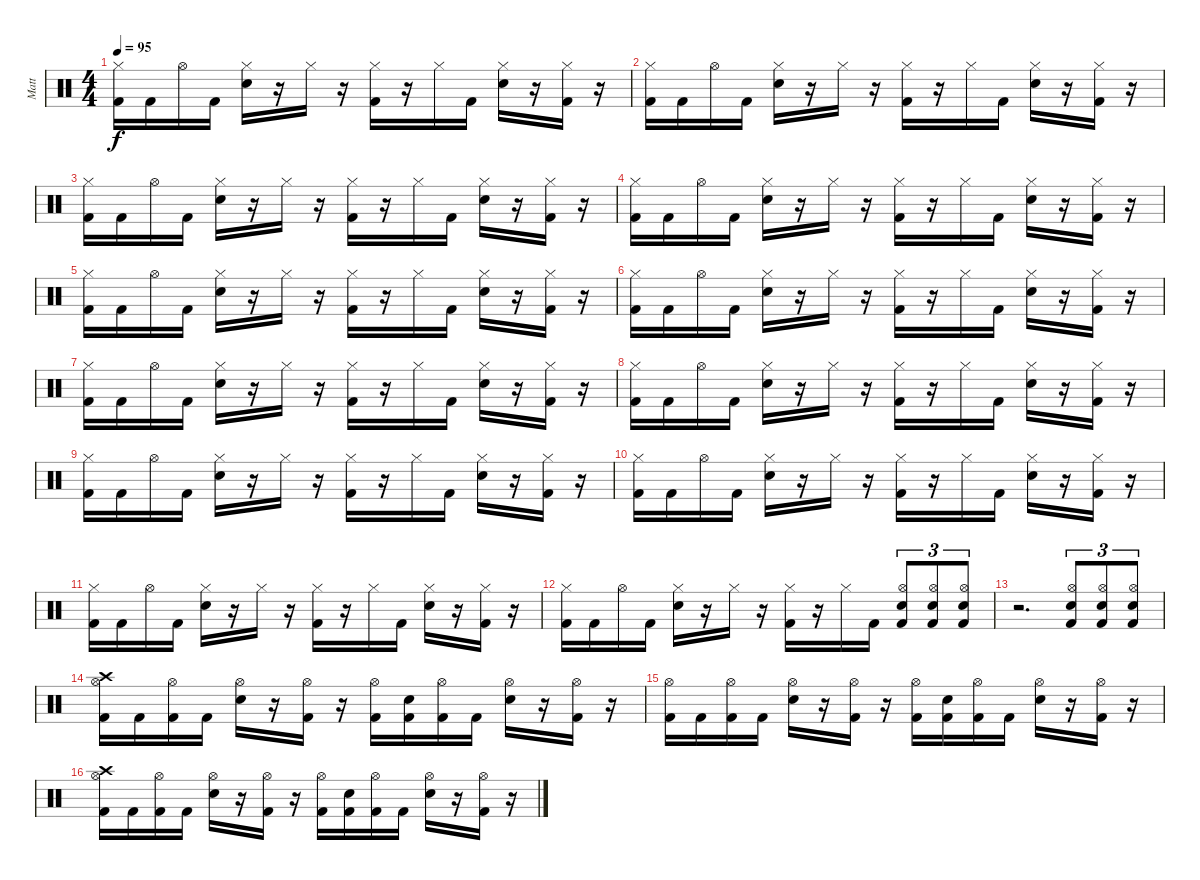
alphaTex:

\track ("Matt" "Matt") {instrument percussion}
\staff {score}
\articulation defaults
\ts (4 4)
\tempo 95
\clef neutral
\ks c
("Hi-Hat (closed)" "Kick (hit) 2").16{dy f} "Kick (hit) 2".16 "Hi-Hat (open)".16 "Kick (hit) 2".16 ("Hi-Hat (closed)" "Snare (hit) 2").16 r.16 "Hi-Hat (closed)".16 r.16 ("Hi-Hat (closed)" "Kick (hit) 2").16 r.16 "Hi-Hat (closed)".16 "Kick (hit) 2".16 ("Hi-Hat (closed)" "Snare (hit) 2").16 r.16 ("Hi-Hat (closed)" "Kick (hit) 2").16 r.16 |
("Hi-Hat (closed)" "Kick (hit) 2").16 "Kick (hit) 2".16 "Hi-Hat (open)".16 "Kick (hit) 2".16 ("Hi-Hat (closed)" "Snare (hit) 2").16 r.16 "Hi-Hat (closed)".16 r.16 ("Hi-Hat (closed)" "Kick (hit) 2").16 r.16 "Hi-Hat (closed)".16 "Kick (hit) 2".16 ("Hi-Hat (closed)" "Snare (hit) 2").16 r.16 ("Hi-Hat (closed)" "Kick (hit) 2").16 r.16 |
("Hi-Hat (closed)" "Kick (hit) 2").16 "Kick (hit) 2".16 "Hi-Hat (open)".16 "Kick (hit) 2".16 ("Hi-Hat (closed)" "Snare (hit) 2").16 r.16 "Hi-Hat (closed)".16 r.16 ("Hi-Hat (closed)" "Kick (hit) 2").16 r.16 "Hi-Hat (closed)".16 "Kick (hit) 2".16 ("Hi-Hat (closed)" "Snare (hit) 2").16 r.16 ("Hi-Hat (closed)" "Kick (hit) 2").16 r.16 |
("Hi-Hat (closed)" "Kick (hit) 2").16 "Kick (hit) 2".16 "Hi-Hat (open)".16 "Kick (hit) 2".16 ("Hi-Hat (closed)" "Snare (hit) 2").16 r.16 "Hi-Hat (closed)".16 r.16 ("Hi-Hat (closed)" "Kick (hit) 2").16 r.16 "Hi-Hat (closed)".16 "Kick (hit) 2".16 ("Hi-Hat (closed)" "Snare (hit) 2").16 r.16 ("Hi-Hat (closed)" "Kick (hit) 2").16 r.16 |
("Hi-Hat (closed)" "Kick (hit) 2").16 "Kick (hit) 2".16 "Hi-Hat (open)".16 "Kick (hit) 2".16 ("Hi-Hat (closed)" "Snare (hit) 2").16 r.16 "Hi-Hat (closed)".16 r.16 ("Hi-Hat (closed)" "Kick (hit) 2").16 r.16 "Hi-Hat (closed)".16 "Kick (hit) 2".16 ("Hi-Hat (closed)" "Snare (hit) 2").16 r.16 ("Hi-Hat (closed)" "Kick (hit) 2").16 r.16 |
("Hi-Hat (closed)" "Kick (hit) 2").16 "Kick (hit) 2".16 "Hi-Hat (open)".16 "Kick (hit) 2".16 ("Hi-Hat (closed)" "Snare (hit) 2").16 r.16 "Hi-Hat (closed)".16 r.16 ("Hi-Hat (closed)" "Kick (hit) 2").16 r.16 "Hi-Hat (closed)".16 "Kick (hit) 2".16 ("Hi-Hat (closed)" "Snare (hit) 2").16 r.16 ("Hi-Hat (closed)" "Kick (hit) 2").16 r.16 |
("Hi-Hat (closed)" "Kick (hit) 2").16 "Kick (hit) 2".16 "Hi-Hat (open)".16 "Kick (hit) 2".16 ("Hi-Hat (closed)" "Snare (hit) 2").16 r.16 "Hi-Hat (closed)".16 r.16 ("Hi-Hat (closed)" "Kick (hit) 2").16 r.16 "Hi-Hat (closed)".16 "Kick (hit) 2".16 ("Hi-Hat (closed)" "Snare (hit) 2").16 r.16 ("Hi-Hat (closed)" "Kick (hit) 2").16 r.16 |
("Hi-Hat (closed)" "Kick (hit) 2").16 "Kick (hit) 2".16 "Hi-Hat (open)".16 "Kick (hit) 2".16 ("Hi-Hat (closed)" "Snare (hit) 2").16 r.16 "Hi-Hat (closed)".16 r.16 ("Hi-Hat (closed)" "Kick (hit) 2").16 r.16 "Hi-Hat (closed)".16 "Kick (hit) 2".16 ("Hi-Hat (closed)" "Snare (hit) 2").16 r.16 ("Hi-Hat (closed)" "Kick (hit) 2").16 r.16 |
("Hi-Hat (closed)" "Kick (hit) 2").16 "Kick (hit) 2".16 "Hi-Hat (open)".16 "Kick (hit) 2".16 ("Hi-Hat (closed)" "Snare (hit) 2").16 r.16 "Hi-Hat (closed)".16 r.16 ("Hi-Hat (closed)" "Kick (hit) 2").16 r.16 "Hi-Hat (closed)".16 "Kick (hit) 2".16 ("Hi-Hat (closed)" "Snare (hit) 2").16 r.16 ("Hi-Hat (closed)" "Kick (hit) 2").16 r.16 |
("Hi-Hat (closed)" "Kick (hit) 2").16 "Kick (hit) 2".16 "Hi-Hat (open)".16 "Kick (hit) 2".16 ("Hi-Hat (closed)" "Snare (hit) 2").16 r.16 "Hi-Hat (closed)".16 r.16 ("Hi-Hat (closed)" "Kick (hit) 2").16 r.16 "Hi-Hat (closed)".16 "Kick (hit) 2".16 ("Hi-Hat (closed)" "Snare (hit) 2").16 r.16 ("Hi-Hat (closed)" "Kick (hit) 2").16 r.16 |
("Hi-Hat (closed)" "Kick (hit) 2").16 "Kick (hit) 2".16 "Hi-Hat (open)".16 "Kick (hit) 2".16 ("Hi-Hat (closed)" "Snare (hit) 2").16 r.16 "Hi-Hat (closed)".16 r.16 ("Hi-Hat (closed)" "Kick (hit) 2").16 r.16 "Hi-Hat (closed)".16 "Kick (hit) 2".16 ("Hi-Hat (closed)" "Snare (hit) 2").16 r.16 ("Hi-Hat (closed)" "Kick (hit) 2").16 r.16 |
("Hi-Hat (closed)" "Kick (hit) 2").16 "Kick (hit) 2".16 "Hi-Hat (open)".16 "Kick (hit) 2".16 ("Hi-Hat (closed)" "Snare (hit) 2").16 r.16 "Hi-Hat (closed)".16 r.16 ("Hi-Hat (closed)" "Kick (hit) 2").16 r.16 "Hi-Hat (closed)".16 "Kick (hit) 2".16 ("Hi-Hat (open)" "Kick (hit) 2" "Snare (hit) 2").8{tu (3 2)} ("Hi-Hat (open)" "Kick (hit) 2" "Snare (hit) 2").8{tu (3 2)} ("Hi-Hat (open)" "Kick (hit) 2" "Snare (hit) 2").8{tu (3 2)} |
r.2{d} ("Hi-Hat (open)" "Snare (hit) 2" "Kick (hit) 2").8{tu (3 2)} ("Hi-Hat (open)" "Snare (hit) 2" "Kick (hit) 2").8{tu (3 2)} ("Hi-Hat (open)" "Snare (hit) 2" "Kick (hit) 2").8{tu (3 2)} |
("Crash high (hit)" "Hi-Hat (open)" "Kick (hit) 2").16 "Kick (hit) 2".16 ("Hi-Hat (open)" "Kick (hit) 2").16 "Kick (hit) 2".16 ("Hi-Hat (open)" "Snare (hit) 2").16 r.16 ("Hi-Hat (open)" "Kick (hit) 2").16 r.16 ("Hi-Hat (open)" "Kick (hit) 2").16 ("Snare (hit) 2" "Kick (hit) 2").16 ("Hi-Hat (open)" "Kick (hit) 2").16 "Kick (hit) 2".16 ("Hi-Hat (open)" "Snare (hit) 2").16 r.16 ("Hi-Hat (open)" "Kick (hit) 2").16 r.16 |
("Hi-Hat (open)" "Kick (hit) 2").16 "Kick (hit) 2".16 ("Hi-Hat (open)" "Kick (hit) 2").16 "Kick (hit) 2".16 ("Hi-Hat (open)" "Snare (hit) 2").16 r.16 ("Hi-Hat (open)" "Kick (hit) 2").16 r.16 ("Hi-Hat (open)" "Kick (hit) 2").16 ("Snare (hit) 2" "Kick (hit) 2").16 ("Hi-Hat (open)" "Kick (hit) 2").16 "Kick (hit) 2".16 ("Hi-Hat (open)" "Snare (hit) 2").16 r.16 ("Hi-Hat (open)" "Kick (hit) 2").16 r.16 |
("Crash high (hit)" "Hi-Hat (open)" "Kick (hit) 2").16 "Kick (hit) 2".16 ("Hi-Hat (open)" "Kick (hit) 2").16 "Kick (hit) 2".16 ("Hi-Hat (open)" "Snare (hit) 2").16 r.16 ("Hi-Hat (open)" "Kick (hit) 2").16 r.16 ("Hi-Hat (open)" "Kick (hit) 2").16 ("Snare (hit) 2" "Kick (hit) 2").16 ("Hi-Hat (open)" "Kick (hit) 2").16 "Kick (hit) 2".16 ("Hi-Hat (open)" "Snare (hit) 2").16 r.16 ("Hi-Hat (open)" "Kick (hit) 2").16 r.16
